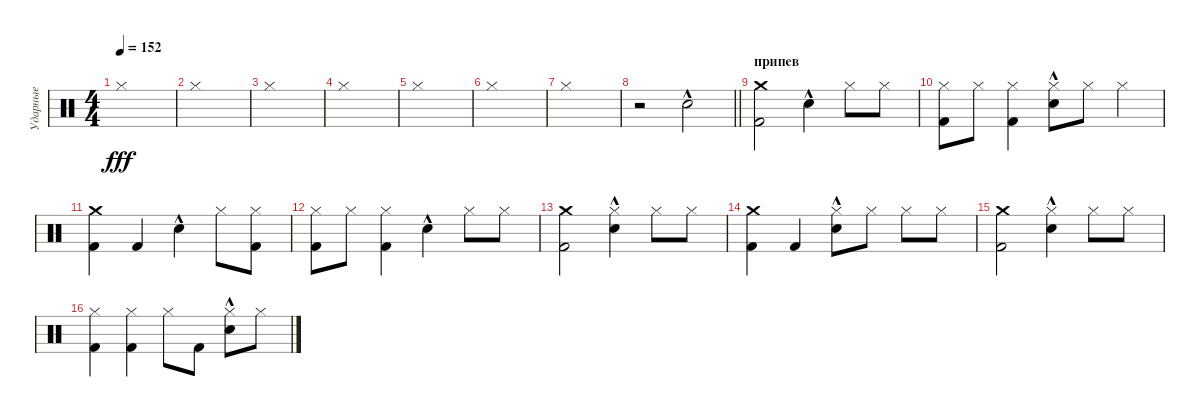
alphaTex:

\track ("Ударные" "Ударные") {instrument percussion}
\staff {score}
\articulation defaults
\ts (4 4)
\tempo 152
\clef neutral
\ks c "Hi-Hat (closed)".1{dy fff}
|
"Hi-Hat (closed)".1 |
"Hi-Hat (closed)".1 |
"Hi-Hat (closed)".1 |
"Hi-Hat (closed)".1 |
"Hi-Hat (closed)".1 |
"Hi-Hat (closed)".1 |
\barLineRight lightlight
r.2 "Electric Snare (hit)"{hac}.2 |
\section ("" "припев")
("Crash medium (hit)" "Kick (hit) 2").2 "Electric Snare (hit)"{hac}.4 "Hi-Hat (closed)".8 "Hi-Hat (closed)".8 |
("Hi-Hat (closed)" "Kick (hit) 2").8 "Hi-Hat (closed)".8 ("Hi-Hat (closed)" "Kick (hit) 2").4 ("Hi-Hat (closed)" "Electric Snare (hit)"{hac}).8 "Hi-Hat (closed)".8 "Hi-Hat (closed)".4 |
("Crash medium (hit)" "Kick (hit) 2").4 "Kick (hit) 2".4 "Electric Snare (hit)"{hac}.4 "Hi-Hat (closed)".8 ("Hi-Hat (closed)" "Kick (hit) 2").8 |
("Hi-Hat (closed)" "Kick (hit) 2").8 "Hi-Hat (closed)".8 ("Hi-Hat (closed)" "Kick (hit) 2").4 "Electric Snare (hit)"{hac}.4 "Hi-Hat (closed)".8 "Hi-Hat (closed)".8 |
("Crash medium (hit)" "Kick (hit) 2").2 ("Hi-Hat (closed)" "Electric Snare (hit)"{hac}).4 "Hi-Hat (closed)".8 "Hi-Hat (closed)".8 |
("Crash medium (hit)" "Kick (hit) 2").4 "Kick (hit) 2".4 ("Hi-Hat (closed)" "Electric Snare (hit)"{hac}).8 "Hi-Hat (closed)".8 "Hi-Hat (closed)".8 "Hi-Hat (closed)".8 |
("Crash medium (hit)" "Kick (hit) 2").2 ("Hi-Hat (closed)" "Electric Snare (hit)"{hac}).4 "Hi-Hat (closed)".8 "Hi-Hat (closed)".8 |
("Hi-Hat (closed)" "Kick (hit) 2").4 ("Hi-Hat (closed)" "Kick (hit) 2").4 "Hi-Hat (closed)".8 "Kick (hit) 2".8 ("Hi-Hat (closed)" "Electric Snare (hit)"{hac}).8 "Hi-Hat (closed)".8
